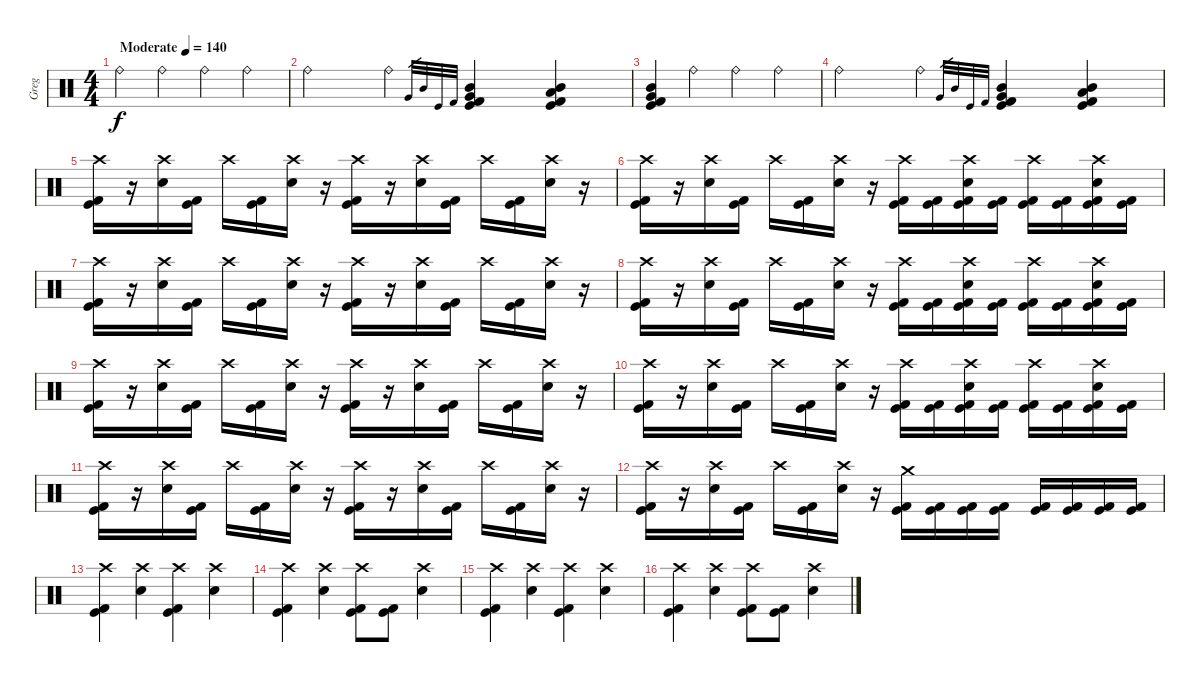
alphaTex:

\track ("Greg" "Greg") {instrument percussion}
\staff {score}
\articulation defaults
\ts (4 4)
\tempo (140 "Moderate")
\clef neutral
\ks c "Ride (bell)".4{dy f} "Ride (bell)".4 "Ride (bell)".4 "Ride (bell)".4
|
"Ride (bell)".4 "Ride (bell)".4 "Very Low Tom (hit)".32{gr} "Mid Tom (hit)".32{gr} "Kick (hit)".32{gr} "Kick (hit) 2".32{gr} ("Very Low Tom (hit)" "Mid Tom (hit)" "Kick (hit)" "Kick (hit) 2").4 ("Low Tom (hit)" "Mid Tom (hit)" "Kick (hit)" "Kick (hit) 2").4 |
("Very Low Tom (hit)" "Mid Tom (hit)" "Kick (hit)" "Kick (hit) 2").4 "Ride (bell)".4 "Ride (bell)".4 "Ride (bell)".4 |
"Ride (bell)".4 "Ride (bell)".4 "Very Low Tom (hit)".32{gr} "Mid Tom (hit)".32{gr} "Kick (hit)".32{gr} "Kick (hit) 2".32{gr} ("Very Low Tom (hit)" "Mid Tom (hit)" "Kick (hit)" "Kick (hit) 2").4 ("Low Tom (hit)" "Mid Tom (hit)" "Kick (hit)" "Kick (hit) 2").4 |
("Crash high (hit)" "Kick (hit)" "Kick (hit) 2").16 r.16 ("Crash high (hit)" "Snare (hit) 2").16 ("Kick (hit)" "Kick (hit) 2").16 "Crash high (hit)".16 ("Kick (hit)" "Kick (hit) 2").16 ("Crash high (hit)" "Snare (hit) 2").16 r.16 ("Crash high (hit)" "Kick (hit)" "Kick (hit) 2").16 r.16 ("Crash high (hit)" "Snare (hit) 2").16 ("Kick (hit)" "Kick (hit) 2").16 "Crash high (hit)".16 ("Kick (hit)" "Kick (hit) 2").16 ("Crash high (hit)" "Snare (hit) 2").16 r.16 |
("Crash high (hit)" "Kick (hit)" "Kick (hit) 2").16 r.16 ("Crash high (hit)" "Snare (hit) 2").16 ("Kick (hit)" "Kick (hit) 2").16 "Crash high (hit)".16 ("Kick (hit)" "Kick (hit) 2").16 ("Crash high (hit)" "Snare (hit) 2").16 r.16 ("Crash high (hit)" "Kick (hit)" "Kick (hit) 2").16 ("Kick (hit)" "Kick (hit) 2").16 ("Crash high (hit)" "Snare (hit) 2" "Kick (hit)" "Kick (hit) 2").16 ("Kick (hit)" "Kick (hit) 2").16 ("Crash high (hit)" "Kick (hit)" "Kick (hit) 2").16 ("Kick (hit)" "Kick (hit) 2").16 ("Crash high (hit)" "Snare (hit) 2" "Kick (hit)" "Kick (hit) 2").16 ("Kick (hit)" "Kick (hit) 2").16 |
("Crash high (hit)" "Kick (hit)" "Kick (hit) 2").16 r.16 ("Crash high (hit)" "Snare (hit) 2").16 ("Kick (hit)" "Kick (hit) 2").16 "Crash high (hit)".16 ("Kick (hit)" "Kick (hit) 2").16 ("Crash high (hit)" "Snare (hit) 2").16 r.16 ("Crash high (hit)" "Kick (hit)" "Kick (hit) 2").16 r.16 ("Crash high (hit)" "Snare (hit) 2").16 ("Kick (hit)" "Kick (hit) 2").16 "Crash high (hit)".16 ("Kick (hit)" "Kick (hit) 2").16 ("Crash high (hit)" "Snare (hit) 2").16 r.16 |
("Crash high (hit)" "Kick (hit)" "Kick (hit) 2").16 r.16 ("Crash high (hit)" "Snare (hit) 2").16 ("Kick (hit)" "Kick (hit) 2").16 "Crash high (hit)".16 ("Kick (hit)" "Kick (hit) 2").16 ("Crash high (hit)" "Snare (hit) 2").16 r.16 ("Crash high (hit)" "Kick (hit)" "Kick (hit) 2").16 ("Kick (hit)" "Kick (hit) 2").16 ("Crash high (hit)" "Snare (hit) 2" "Kick (hit)" "Kick (hit) 2").16 ("Kick (hit)" "Kick (hit) 2").16 ("Crash high (hit)" "Kick (hit)" "Kick (hit) 2").16 ("Kick (hit)" "Kick (hit) 2").16 ("Crash high (hit)" "Snare (hit) 2" "Kick (hit)" "Kick (hit) 2").16 ("Kick (hit)" "Kick (hit) 2").16 |
("Crash high (hit)" "Kick (hit)" "Kick (hit) 2").16 r.16 ("Crash high (hit)" "Snare (hit) 2").16 ("Kick (hit)" "Kick (hit) 2").16 "Crash high (hit)".16 ("Kick (hit)" "Kick (hit) 2").16 ("Crash high (hit)" "Snare (hit) 2").16 r.16 ("Crash high (hit)" "Kick (hit)" "Kick (hit) 2").16 r.16 ("Crash high (hit)" "Snare (hit) 2").16 ("Kick (hit)" "Kick (hit) 2").16 "Crash high (hit)".16 ("Kick (hit)" "Kick (hit) 2").16 ("Crash high (hit)" "Snare (hit) 2").16 r.16 |
("Crash high (hit)" "Kick (hit)" "Kick (hit) 2").16 r.16 ("Crash high (hit)" "Snare (hit) 2").16 ("Kick (hit)" "Kick (hit) 2").16 "Crash high (hit)".16 ("Kick (hit)" "Kick (hit) 2").16 ("Crash high (hit)" "Snare (hit) 2").16 r.16 ("Crash high (hit)" "Kick (hit)" "Kick (hit) 2").16 ("Kick (hit)" "Kick (hit) 2").16 ("Crash high (hit)" "Snare (hit) 2" "Kick (hit)" "Kick (hit) 2").16 ("Kick (hit)" "Kick (hit) 2").16 ("Crash high (hit)" "Kick (hit)" "Kick (hit) 2").16 ("Kick (hit)" "Kick (hit) 2").16 ("Crash high (hit)" "Snare (hit) 2" "Kick (hit)" "Kick (hit) 2").16 ("Kick (hit)" "Kick (hit) 2").16 |
("Crash high (hit)" "Kick (hit)" "Kick (hit) 2").16 r.16 ("Crash high (hit)" "Snare (hit) 2").16 ("Kick (hit)" "Kick (hit) 2").16 "Crash high (hit)".16 ("Kick (hit)" "Kick (hit) 2").16 ("Crash high (hit)" "Snare (hit) 2").16 r.16 ("Crash high (hit)" "Kick (hit)" "Kick (hit) 2").16 r.16 ("Crash high (hit)" "Snare (hit) 2").16 ("Kick (hit)" "Kick (hit) 2").16 "Crash high (hit)".16 ("Kick (hit)" "Kick (hit) 2").16 ("Crash high (hit)" "Snare (hit) 2").16 r.16 |
("Crash high (hit)" "Kick (hit)" "Kick (hit) 2").16 r.16 ("Crash high (hit)" "Snare (hit) 2").16 ("Kick (hit)" "Kick (hit) 2").16 "Crash high (hit)".16 ("Kick (hit)" "Kick (hit) 2").16 ("Crash high (hit)" "Snare (hit) 2").16 r.16 ("Crash medium (hit)" "Kick (hit)" "Kick (hit) 2").16 ("Kick (hit)" "Kick (hit) 2").16 ("Kick (hit)" "Kick (hit) 2").16 ("Kick (hit)" "Kick (hit) 2").16 ("Kick (hit)" "Kick (hit) 2").16 ("Kick (hit)" "Kick (hit) 2").16 ("Kick (hit)" "Kick (hit) 2").16 ("Kick (hit)" "Kick (hit) 2").16 |
("Crash high (hit)" "Kick (hit)" "Kick (hit) 2").4 ("Crash high (hit)" "Snare (hit) 2").4 ("Crash high (hit)" "Kick (hit)" "Kick (hit) 2").4 ("Crash high (hit)" "Snare (hit) 2").4 |
("Crash high (hit)" "Kick (hit)" "Kick (hit) 2").4 ("Crash high (hit)" "Snare (hit) 2").4 ("Crash high (hit)" "Kick (hit)" "Kick (hit) 2").8 ("Kick (hit)" "Kick (hit) 2").8 ("Crash high (hit)" "Snare (hit) 2").4 |
("Crash high (hit)" "Kick (hit)" "Kick (hit) 2").4 ("Crash high (hit)" "Snare (hit) 2").4 ("Crash high (hit)" "Kick (hit)" "Kick (hit) 2").4 ("Crash high (hit)" "Snare (hit) 2").4 |
("Crash high (hit)" "Kick (hit)" "Kick (hit) 2").4 ("Crash high (hit)" "Snare (hit) 2").4 ("Crash high (hit)" "Kick (hit)" "Kick (hit) 2").8 ("Kick (hit)" "Kick (hit) 2").8 ("Crash high (hit)" "Snare (hit) 2").4
